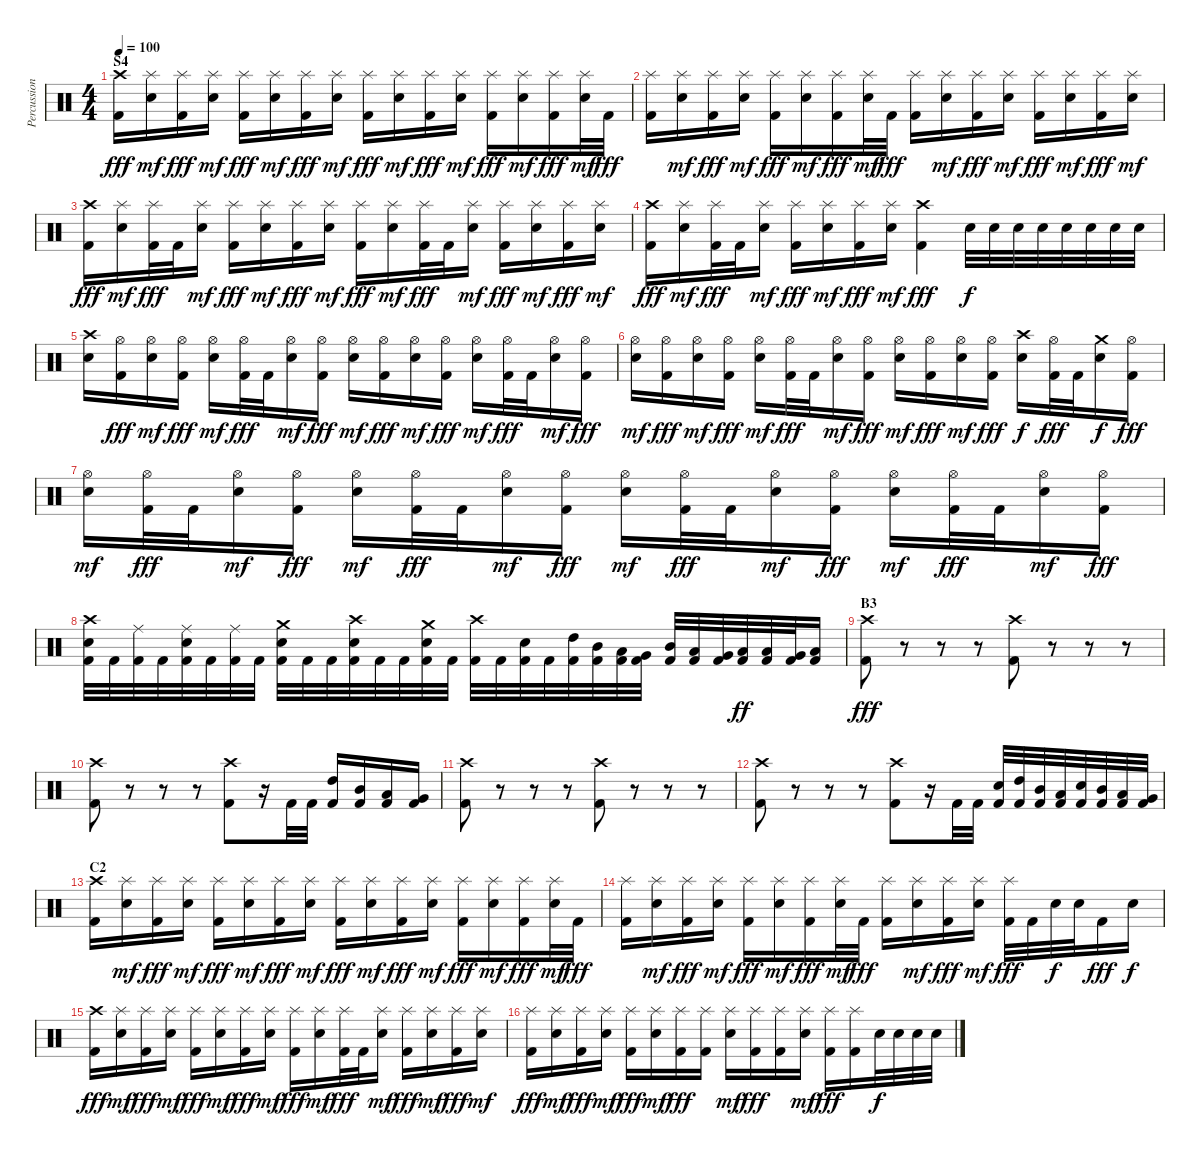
\track ("Percussion" "Percussion") {instrument percussion}
\staff {score}
\articulation defaults
\ts (4 4)
\section ("" "S4")
\tempo 100
\clef neutral
\ks c
("Crash high (hit)" "Kick (hit) 2").16{dy fff} ("Splash (hit)" "Snare (hit) 2").16{dy mf} ("Splash (hit)" "Kick (hit) 2").16{dy fff} ("Splash (hit)" "Snare (hit) 2").16{dy mf} ("Splash (hit)" "Kick (hit) 2").16{dy fff} ("Splash (hit)" "Snare (hit) 2").16{dy mf} ("Splash (hit)" "Kick (hit) 2").16{dy fff} ("Splash (hit)" "Snare (hit) 2").16{dy mf} ("Splash (hit)" "Kick (hit) 2").16{dy fff} ("Splash (hit)" "Snare (hit) 2").16{dy mf} ("Splash (hit)" "Kick (hit) 2").16{dy fff} ("Splash (hit)" "Snare (hit) 2").16{dy mf} ("Splash (hit)" "Kick (hit) 2").16{dy fff} ("Splash (hit)" "Snare (hit) 2").16{dy mf} ("Splash (hit)" "Kick (hit) 2").16{dy fff} ("Splash (hit)" "Snare (hit) 2").32{dy mf} "Kick (hit) 2".32{dy fff} |
("Splash (hit)" "Kick (hit) 2").16 ("Splash (hit)" "Snare (hit) 2").16{dy mf} ("Splash (hit)" "Kick (hit) 2").16{dy fff} ("Splash (hit)" "Snare (hit) 2").16{dy mf} ("Splash (hit)" "Kick (hit) 2").16{dy fff} ("Splash (hit)" "Snare (hit) 2").16{dy mf} ("Splash (hit)" "Kick (hit) 2").16{dy fff} ("Splash (hit)" "Snare (hit) 2").32{dy mf} "Kick (hit) 2".32{dy fff} ("Splash (hit)" "Kick (hit) 2").16 ("Splash (hit)" "Snare (hit) 2").16{dy mf} ("Splash (hit)" "Kick (hit) 2").16{dy fff} ("Splash (hit)" "Snare (hit) 2").16{dy mf} ("Splash (hit)" "Kick (hit) 2").16{dy fff} ("Splash (hit)" "Snare (hit) 2").16{dy mf} ("Splash (hit)" "Kick (hit) 2").16{dy fff} ("Splash (hit)" "Snare (hit) 2").16{dy mf} |
("Crash high (hit)" "Kick (hit) 2").16{dy fff} ("Splash (hit)" "Snare (hit) 2").16{dy mf} ("Splash (hit)" "Kick (hit) 2").32{dy fff} "Kick (hit) 2".32 ("Splash (hit)" "Snare (hit) 2").16{dy mf} ("Splash (hit)" "Kick (hit) 2").16{dy fff} ("Splash (hit)" "Snare (hit) 2").16{dy mf} ("Splash (hit)" "Kick (hit) 2").16{dy fff} ("Splash (hit)" "Snare (hit) 2").16{dy mf} ("Splash (hit)" "Kick (hit) 2").16{dy fff} ("Splash (hit)" "Snare (hit) 2").16{dy mf} ("Splash (hit)" "Kick (hit) 2").32{dy fff} "Kick (hit) 2".32 ("Splash (hit)" "Snare (hit) 2").16{dy mf} ("Splash (hit)" "Kick (hit) 2").16{dy fff} ("Splash (hit)" "Snare (hit) 2").16{dy mf} ("Splash (hit)" "Kick (hit) 2").16{dy fff} ("Splash (hit)" "Snare (hit) 2").16{dy mf} |
("Crash high (hit)" "Kick (hit) 2").16{dy fff} ("Splash (hit)" "Snare (hit) 2").16{dy mf} ("Splash (hit)" "Kick (hit) 2").32{dy fff} "Kick (hit) 2".32 ("Splash (hit)" "Snare (hit) 2").16{dy mf} ("Splash (hit)" "Kick (hit) 2").16{dy fff} ("Splash (hit)" "Snare (hit) 2").16{dy mf} ("Splash (hit)" "Kick (hit) 2").16{dy fff} ("Splash (hit)" "Snare (hit) 2").16{dy mf} ("Crash high (hit)" "Kick (hit) 2").4{dy fff} "Snare (hit) 2".32{dy f} "Snare (hit) 2".32 "Snare (hit) 2".32 "Snare (hit) 2".32 "Snare (hit) 2".32 "Snare (hit) 2".32 "Snare (hit) 2".32 "Snare (hit) 2".32 |
("Crash high (hit)" "Snare (hit) 2").16 ("Hi-Hat (open)" "Kick (hit) 2").16{dy fff} ("Hi-Hat (open)" "Snare (hit) 2").16{dy mf} ("Hi-Hat (open)" "Kick (hit) 2").16{dy fff} ("Hi-Hat (open)" "Snare (hit) 2").16{dy mf} ("Hi-Hat (open)" "Kick (hit) 2").32{dy fff} "Kick (hit) 2".32 ("Hi-Hat (open)" "Snare (hit) 2").16{dy mf} ("Hi-Hat (open)" "Kick (hit) 2").16{dy fff} ("Hi-Hat (open)" "Snare (hit) 2").16{dy mf} ("Hi-Hat (open)" "Kick (hit) 2").16{dy fff} ("Hi-Hat (open)" "Snare (hit) 2").16{dy mf} ("Hi-Hat (open)" "Kick (hit) 2").16{dy fff} ("Hi-Hat (open)" "Snare (hit) 2").16{dy mf} ("Hi-Hat (open)" "Kick (hit) 2").32{dy fff} "Kick (hit) 2".32 ("Hi-Hat (open)" "Snare (hit) 2").16{dy mf} ("Hi-Hat (open)" "Kick (hit) 2").16{dy fff} |
("Hi-Hat (open)" "Snare (hit) 2").16{dy mf} ("Hi-Hat (open)" "Kick (hit) 2").16{dy fff} ("Hi-Hat (open)" "Snare (hit) 2").16{dy mf} ("Hi-Hat (open)" "Kick (hit) 2").16{dy fff} ("Hi-Hat (open)" "Snare (hit) 2").16{dy mf} ("Hi-Hat (open)" "Kick (hit) 2").32{dy fff} "Kick (hit) 2".32 ("Hi-Hat (open)" "Snare (hit) 2").16{dy mf} ("Hi-Hat (open)" "Kick (hit) 2").16{dy fff} ("Hi-Hat (open)" "Snare (hit) 2").16{dy mf} ("Hi-Hat (open)" "Kick (hit) 2").16{dy fff} ("Hi-Hat (open)" "Snare (hit) 2").16{dy mf} ("Hi-Hat (open)" "Kick (hit) 2").16{dy fff} ("Crash high (hit)" "Snare (hit) 2").16{dy f} ("Hi-Hat (open)" "Kick (hit) 2").32{dy fff} "Kick (hit) 2".32 ("Crash medium (hit)" "Snare (hit) 2").16{dy f} ("Hi-Hat (open)" "Kick (hit) 2").16{dy fff} |
("Hi-Hat (open)" "Snare (hit) 2").16{dy mf} ("Hi-Hat (open)" "Kick (hit) 2").32{dy fff} "Kick (hit) 2".32 ("Hi-Hat (open)" "Snare (hit) 2").16{dy mf} ("Hi-Hat (open)" "Kick (hit) 2").16{dy fff} ("Hi-Hat (open)" "Snare (hit) 2").16{dy mf} ("Hi-Hat (open)" "Kick (hit) 2").32{dy fff} "Kick (hit) 2".32 ("Hi-Hat (open)" "Snare (hit) 2").16{dy mf} ("Hi-Hat (open)" "Kick (hit) 2").16{dy fff} ("Hi-Hat (open)" "Snare (hit) 2").16{dy mf} ("Hi-Hat (open)" "Kick (hit) 2").32{dy fff} "Kick (hit) 2".32 ("Hi-Hat (open)" "Snare (hit) 2").16{dy mf} ("Hi-Hat (open)" "Kick (hit) 2").16{dy fff} ("Hi-Hat (open)" "Snare (hit) 2").16{dy mf} ("Hi-Hat (open)" "Kick (hit) 2").32{dy fff} "Kick (hit) 2".32 ("Hi-Hat (open)" "Snare (hit) 2").16{dy mf} ("Hi-Hat (open)" "Kick (hit) 2").16{dy fff} |
("Crash high (hit)" "Snare (hit) 2" "Kick (hit) 2").32 "Kick (hit) 2".32 ("Ride (middle)" "Kick (hit) 2").32 "Kick (hit) 2".32 ("Ride (middle)" "Snare (hit) 2" "Kick (hit) 2").32 "Kick (hit) 2".32 ("Ride (middle)" "Kick (hit) 2").32 "Kick (hit) 2".32 ("Crash medium (hit)" "Snare (hit) 2" "Kick (hit) 2").32 "Kick (hit) 2".32 "Kick (hit) 2".32 ("Crash high (hit)" "Snare (hit) 2" "Kick (hit) 2").32 "Kick (hit) 2".32 "Kick (hit) 2".32 ("Crash medium (hit)" "Snare (hit) 2" "Kick (hit) 2").32 "Kick (hit) 2".32 ("Crash high (hit)" "Kick (hit) 2").32 "Kick (hit) 2".32 ("Snare (hit) 2" "Kick (hit) 2").32 "Kick (hit) 2".32 ("High Tom (hit)" "Kick (hit) 2").32 ("Mid Tom (hit)" "Kick (hit) 2").32 ("Low Tom (hit)" "Kick (hit) 2").32 ("Very Low Tom (hit)" "Kick (hit) 2").32 ("Mid Tom (hit)" "Kick (hit) 2").32 ("Low Tom (hit)" "Kick (hit) 2").32 ("Very Low Tom (hit)" "Kick (hit) 2").32 ("Low Floor Tom (hit)" "Kick (hit) 2").32{dy ff} ("Low Tom (hit)" "Kick (hit) 2").32 ("Very Low Tom (hit)" "Kick (hit) 2").32 ("Low Floor Tom (hit)" "Kick (hit) 2").16 |
\section ("" "B3")
("Crash high (hit)" "Kick (hit) 2").8{dy fff} r.8 r.8 r.8 ("Crash high (hit)" "Kick (hit) 2").8 r.8 r.8 r.8 |
("Crash high (hit)" "Kick (hit) 2").8 r.8 r.8 r.8 ("Crash high (hit)" "Kick (hit) 2").8 r.16 "Kick (hit) 2".32 "Kick (hit) 2".32 ("High Tom (hit)" "Kick (hit) 2").16 ("Mid Tom (hit)" "Kick (hit) 2").16 ("Low Tom (hit)" "Kick (hit) 2").16 ("Very Low Tom (hit)" "Kick (hit) 2").16 |
("Crash high (hit)" "Kick (hit) 2").8 r.8 r.8 r.8 ("Crash high (hit)" "Kick (hit) 2").8 r.8 r.8 r.8 |
("Crash high (hit)" "Kick (hit) 2").8 r.8 r.8 r.8 ("Crash high (hit)" "Kick (hit) 2").8 r.16 "Kick (hit) 2".32 "Kick (hit) 2".32 ("Snare (hit) 2" "Kick (hit) 2").32 ("High Tom (hit)" "Kick (hit) 2").32 ("Mid Tom (hit)" "Kick (hit) 2").32 ("Low Tom (hit)" "Kick (hit) 2").32 ("Snare (hit) 2" "Kick (hit) 2").32 ("Mid Tom (hit)" "Kick (hit) 2").32 ("Low Tom (hit)" "Kick (hit) 2").32 ("Very Low Tom (hit)" "Kick (hit) 2").32 |
\section ("" "C2")
("Crash high (hit)" "Kick (hit) 2").16 ("Splash (hit)" "Snare (hit) 2").16{dy mf} ("Splash (hit)" "Kick (hit) 2").16{dy fff} ("Splash (hit)" "Snare (hit) 2").16{dy mf} ("Splash (hit)" "Kick (hit) 2").16{dy fff} ("Splash (hit)" "Snare (hit) 2").16{dy mf} ("Splash (hit)" "Kick (hit) 2").16{dy fff} ("Splash (hit)" "Snare (hit) 2").16{dy mf} ("Splash (hit)" "Kick (hit) 2").16{dy fff} ("Splash (hit)" "Snare (hit) 2").16{dy mf} ("Splash (hit)" "Kick (hit) 2").16{dy fff} ("Splash (hit)" "Snare (hit) 2").16{dy mf} ("Splash (hit)" "Kick (hit) 2").16{dy fff} ("Splash (hit)" "Snare (hit) 2").16{dy mf} ("Splash (hit)" "Kick (hit) 2").16{dy fff} ("Splash (hit)" "Snare (hit) 2").32{dy mf} "Kick (hit) 2".32{dy fff} |
("Splash (hit)" "Kick (hit) 2").16 ("Splash (hit)" "Snare (hit) 2").16{dy mf} ("Splash (hit)" "Kick (hit) 2").16{dy fff} ("Splash (hit)" "Snare (hit) 2").16{dy mf} ("Splash (hit)" "Kick (hit) 2").16{dy fff} ("Splash (hit)" "Snare (hit) 2").16{dy mf} ("Splash (hit)" "Kick (hit) 2").16{dy fff} ("Splash (hit)" "Snare (hit) 2").32{dy mf} "Kick (hit) 2".32{dy fff} ("Splash (hit)" "Kick (hit) 2").16 ("Splash (hit)" "Snare (hit) 2").16{dy mf} ("Splash (hit)" "Kick (hit) 2").16{dy fff} ("Splash (hit)" "Snare (hit) 2").16{dy mf} ("Splash (hit)" "Kick (hit) 2").32{dy fff} "Kick (hit) 2".32 "Snare (hit) 2".32{dy f} "Snare (hit) 2".32 "Kick (hit) 2".16{dy fff} "Snare (hit) 2".16{dy f} |
("Crash high (hit)" "Kick (hit) 2").16{dy fff} ("Splash (hit)" "Snare (hit) 2").16{dy mf} ("Splash (hit)" "Kick (hit) 2").16{dy fff} ("Splash (hit)" "Snare (hit) 2").16{dy mf} ("Splash (hit)" "Kick (hit) 2").16{dy fff} ("Splash (hit)" "Snare (hit) 2").16{dy mf} ("Splash (hit)" "Kick (hit) 2").16{dy fff} ("Splash (hit)" "Snare (hit) 2").16{dy mf} ("Splash (hit)" "Kick (hit) 2").16{dy fff} ("Splash (hit)" "Snare (hit) 2").16{dy mf} ("Splash (hit)" "Kick (hit) 2").32{dy fff} "Kick (hit) 2".32 ("Splash (hit)" "Snare (hit) 2").16{dy mf} ("Splash (hit)" "Kick (hit) 2").16{dy fff} ("Splash (hit)" "Snare (hit) 2").16{dy mf} ("Splash (hit)" "Kick (hit) 2").16{dy fff} ("Splash (hit)" "Snare (hit) 2").16{dy mf} |
("Splash (hit)" "Kick (hit) 2").16{dy fff} ("Splash (hit)" "Snare (hit) 2").16{dy mf} ("Splash (hit)" "Kick (hit) 2").16{dy fff} ("Splash (hit)" "Snare (hit) 2").16{dy mf} ("Splash (hit)" "Kick (hit) 2").16{dy fff} ("Splash (hit)" "Snare (hit) 2").16{dy mf} ("Splash (hit)" "Kick (hit) 2").16{dy fff} ("Splash (hit)" "Kick (hit) 2").16 ("Splash (hit)" "Snare (hit) 2").16{dy mf} ("Splash (hit)" "Kick (hit) 2").16{dy fff} ("Splash (hit)" "Kick (hit) 2").16 ("Splash (hit)" "Snare (hit) 2").16{dy mf} ("Splash (hit)" "Kick (hit) 2").16{dy fff} ("Splash (hit)" "Kick (hit) 2").16 "Snare (hit) 2".32{dy f} "Snare (hit) 2".32 "Snare (hit) 2".32 "Snare (hit) 2".32
